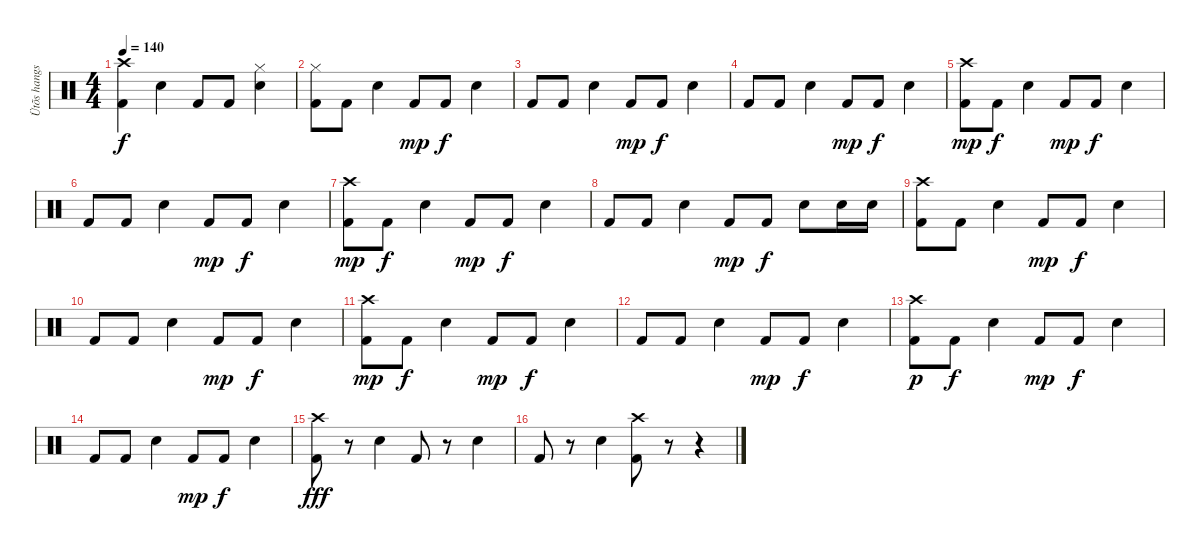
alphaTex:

\track ("Ütõs hangszer" "Ütõs hangs") {instrument percussion}
\staff {score}
\articulation defaults
\ts (4 4)
\tempo 140
\clef neutral
\ks c
("Kick (hit) 2" "Crash high (hit)").4{dy f} "Electric Snare (hit)".4 "Kick (hit) 2".8 "Kick (hit) 2".8 ("Electric Snare (hit)" "Hi-Hat (closed)").4 |
("Kick (hit) 2" "Hi-Hat (closed)").8 "Kick (hit) 2".8 "Electric Snare (hit)".4 "Kick (hit) 2".8{dy mp} "Kick (hit) 2".8{dy f} "Electric Snare (hit)".4 |
"Kick (hit) 2".8 "Kick (hit) 2".8 "Electric Snare (hit)".4 "Kick (hit) 2".8{dy mp} "Kick (hit) 2".8{dy f} "Electric Snare (hit)".4 |
"Kick (hit) 2".8 "Kick (hit) 2".8 "Electric Snare (hit)".4 "Kick (hit) 2".8{dy mp} "Kick (hit) 2".8{dy f} "Electric Snare (hit)".4 |
("Kick (hit) 2" "Crash high (hit)").8{dy mp} "Kick (hit) 2".8{dy f} "Electric Snare (hit)".4 "Kick (hit) 2".8{dy mp} "Kick (hit) 2".8{dy f} "Electric Snare (hit)".4 |
"Kick (hit) 2".8 "Kick (hit) 2".8 "Electric Snare (hit)".4 "Kick (hit) 2".8{dy mp} "Kick (hit) 2".8{dy f} "Electric Snare (hit)".4 |
("Kick (hit) 2" "Crash high (hit)").8{dy mp} "Kick (hit) 2".8{dy f} "Electric Snare (hit)".4 "Kick (hit) 2".8{dy mp} "Kick (hit) 2".8{dy f} "Electric Snare (hit)".4 |
"Kick (hit) 2".8 "Kick (hit) 2".8 "Electric Snare (hit)".4 "Kick (hit) 2".8{dy mp} "Kick (hit) 2".8{dy f} "Electric Snare (hit)".8 "Electric Snare (hit)".16 "Electric Snare (hit)".16 |
("Kick (hit) 2" "Crash high (hit)").8 "Kick (hit) 2".8 "Electric Snare (hit)".4 "Kick (hit) 2".8{dy mp} "Kick (hit) 2".8{dy f} "Electric Snare (hit)".4 |
"Kick (hit) 2".8 "Kick (hit) 2".8 "Electric Snare (hit)".4 "Kick (hit) 2".8{dy mp} "Kick (hit) 2".8{dy f} "Electric Snare (hit)".4 |
("Kick (hit) 2" "Crash high (hit)").8{dy mp} "Kick (hit) 2".8{dy f} "Electric Snare (hit)".4 "Kick (hit) 2".8{dy mp} "Kick (hit) 2".8{dy f} "Electric Snare (hit)".4 |
"Kick (hit) 2".8 "Kick (hit) 2".8 "Electric Snare (hit)".4 "Kick (hit) 2".8{dy mp} "Kick (hit) 2".8{dy f} "Electric Snare (hit)".4 |
("Kick (hit) 2" "Crash high (hit)").8{dy p} "Kick (hit) 2".8{dy f} "Electric Snare (hit)".4 "Kick (hit) 2".8{dy mp} "Kick (hit) 2".8{dy f} "Electric Snare (hit)".4 |
"Kick (hit) 2".8 "Kick (hit) 2".8 "Electric Snare (hit)".4 "Kick (hit) 2".8{dy mp} "Kick (hit) 2".8{dy f} "Electric Snare (hit)".4 |
("Kick (hit) 2" "Crash high (hit)").8{dy fff} r.8 "Electric Snare (hit)".4 "Kick (hit) 2".8 r.8 "Electric Snare (hit)".4 |
"Kick (hit) 2".8 r.8 "Electric Snare (hit)".4 ("Kick (hit) 2" "Crash high (hit)").8 r.8 r.4
